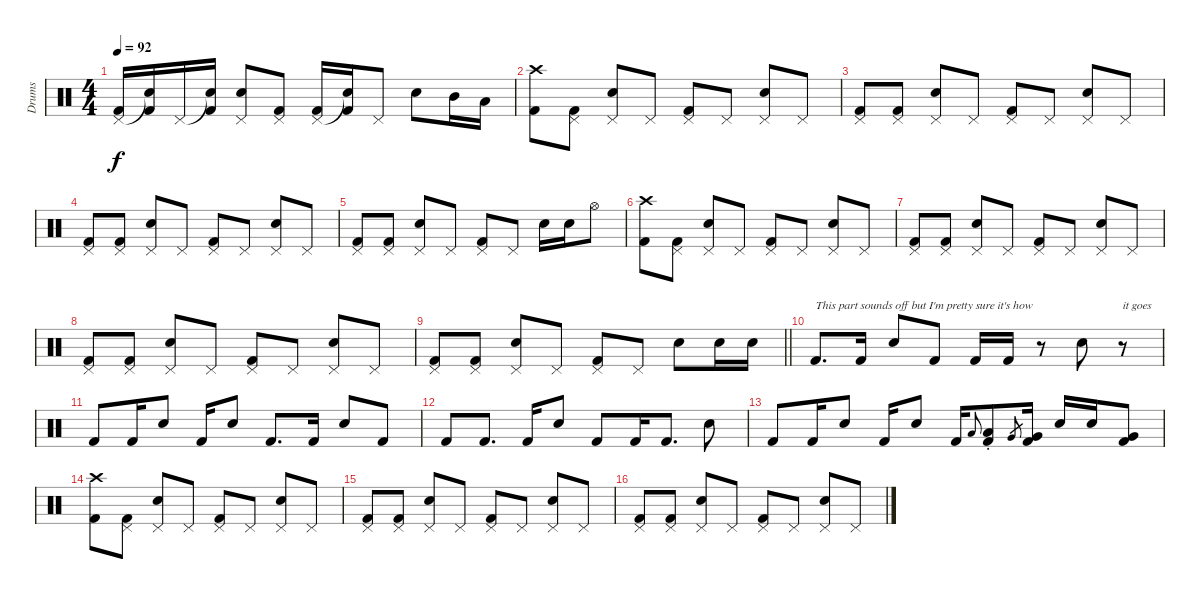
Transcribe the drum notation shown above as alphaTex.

\track ("Drums" "Drums") {instrument percussion}
\staff {score}
\articulation defaults
\ts (4 4)
\tempo 92
\clef neutral
\ks c
("Pedal Hi-Hat (hit)" "Kick (hit) 2").16{dy f} ("Snare (hit)"{t} "Kick (hit) 2").16 "Pedal Hi-Hat (hit)".16 ("Snare (hit)"{t} "Kick (hit) 2").16 ("Pedal Hi-Hat (hit)" "Electric Snare (hit)").8 ("Pedal Hi-Hat (hit)" "Kick (hit) 2").8 ("Pedal Hi-Hat (hit)" "Kick (hit) 2").16 ("Snare (hit)"{t} "Kick (hit) 2").16 "Pedal Hi-Hat (hit)".8 "Electric Snare (hit)".8 "Mid Tom (hit)".16 "Low Tom (hit)".16 |
("Crash high (hit)" "Kick (hit) 2").8 ("Pedal Hi-Hat (hit)" "Kick (hit) 2").8 ("Pedal Hi-Hat (hit)" "Electric Snare (hit)").8 "Pedal Hi-Hat (hit)".8 ("Pedal Hi-Hat (hit)" "Kick (hit) 2").8 "Pedal Hi-Hat (hit)".8 ("Pedal Hi-Hat (hit)" "Electric Snare (hit)").8 "Pedal Hi-Hat (hit)".8 |
("Pedal Hi-Hat (hit)" "Kick (hit) 2").8 ("Pedal Hi-Hat (hit)" "Kick (hit) 2").8 ("Pedal Hi-Hat (hit)" "Electric Snare (hit)").8 "Pedal Hi-Hat (hit)".8 ("Pedal Hi-Hat (hit)" "Kick (hit) 2").8 "Pedal Hi-Hat (hit)".8 ("Pedal Hi-Hat (hit)" "Electric Snare (hit)").8 "Pedal Hi-Hat (hit)".8 |
("Pedal Hi-Hat (hit)" "Kick (hit) 2").8 ("Pedal Hi-Hat (hit)" "Kick (hit) 2").8 ("Pedal Hi-Hat (hit)" "Electric Snare (hit)").8 "Pedal Hi-Hat (hit)".8 ("Pedal Hi-Hat (hit)" "Kick (hit) 2").8 "Pedal Hi-Hat (hit)".8 ("Pedal Hi-Hat (hit)" "Electric Snare (hit)").8 "Pedal Hi-Hat (hit)".8 |
("Pedal Hi-Hat (hit)" "Kick (hit) 2").8 ("Pedal Hi-Hat (hit)" "Kick (hit) 2").8 ("Pedal Hi-Hat (hit)" "Electric Snare (hit)").8 "Pedal Hi-Hat (hit)".8 ("Pedal Hi-Hat (hit)" "Kick (hit) 2").8 "Pedal Hi-Hat (hit)".8 "Electric Snare (hit)".16 "Electric Snare (hit)".16 "Hi-Hat (open)".8 |
("Crash high (hit)" "Kick (hit) 2").8 ("Pedal Hi-Hat (hit)" "Kick (hit) 2").8 ("Pedal Hi-Hat (hit)" "Electric Snare (hit)").8 "Pedal Hi-Hat (hit)".8 ("Pedal Hi-Hat (hit)" "Kick (hit) 2").8 "Pedal Hi-Hat (hit)".8 ("Pedal Hi-Hat (hit)" "Electric Snare (hit)").8 "Pedal Hi-Hat (hit)".8 |
("Pedal Hi-Hat (hit)" "Kick (hit) 2").8 ("Pedal Hi-Hat (hit)" "Kick (hit) 2").8 ("Pedal Hi-Hat (hit)" "Electric Snare (hit)").8 "Pedal Hi-Hat (hit)".8 ("Pedal Hi-Hat (hit)" "Kick (hit) 2").8 "Pedal Hi-Hat (hit)".8 ("Pedal Hi-Hat (hit)" "Electric Snare (hit)").8 "Pedal Hi-Hat (hit)".8 |
("Pedal Hi-Hat (hit)" "Kick (hit) 2").8 ("Pedal Hi-Hat (hit)" "Kick (hit) 2").8 ("Pedal Hi-Hat (hit)" "Electric Snare (hit)").8 "Pedal Hi-Hat (hit)".8 ("Pedal Hi-Hat (hit)" "Kick (hit) 2").8 "Pedal Hi-Hat (hit)".8 ("Pedal Hi-Hat (hit)" "Electric Snare (hit)").8 "Pedal Hi-Hat (hit)".8 |
\barLineRight lightlight
("Pedal Hi-Hat (hit)" "Kick (hit) 2").8 ("Pedal Hi-Hat (hit)" "Kick (hit) 2").8 ("Pedal Hi-Hat (hit)" "Electric Snare (hit)").8 "Pedal Hi-Hat (hit)".8 ("Pedal Hi-Hat (hit)" "Kick (hit) 2").8 "Pedal Hi-Hat (hit)".8 "Electric Snare (hit)".8 "Electric Snare (hit)".16 "Electric Snare (hit)".16 |
"Kick (hit) 2".8{d txt "This part sounds off but I'm pretty sure it's how"} "Kick (hit) 2".16 "Electric Snare (hit)".8 "Kick (hit) 2".8 "Kick (hit) 2".16 "Kick (hit) 2".16 r.8 "Electric Snare (hit)".8 r.8{txt "it goes"} |
"Kick (hit) 2".8 "Kick (hit) 2".16 "Electric Snare (hit)".8 "Kick (hit) 2".16 "Electric Snare (hit)".8 "Kick (hit) 2".8{d} "Kick (hit) 2".16 "Electric Snare (hit)".8 "Kick (hit) 2".8 |
"Kick (hit) 2".8 "Kick (hit) 2".8{d} "Kick (hit) 2".16 "Electric Snare (hit)".8 "Kick (hit) 2".8 "Kick (hit) 2".16 "Kick (hit) 2".8{d} "Electric Snare (hit)".8 |
"Kick (hit) 2".8 "Kick (hit) 2".16 "Electric Snare (hit)".8 "Kick (hit) 2".16 "Electric Snare (hit)".8 "Kick (hit) 2".16 "Low Tom (hit)".8{gr onbeat} ("Low Tom (hit)"{st} "Kick (hit) 2").8 "Very Low Tom (hit)".8{gr} ("Very Low Tom (hit)" "Kick (hit) 2").16 "Electric Snare (hit)".16 "Electric Snare (hit)".16 ("Very Low Tom (hit)" "Kick (hit) 2").8 |
("Crash high (hit)" "Kick (hit) 2").8 ("Pedal Hi-Hat (hit)" "Kick (hit) 2").8 ("Pedal Hi-Hat (hit)" "Electric Snare (hit)").8 "Pedal Hi-Hat (hit)".8 ("Pedal Hi-Hat (hit)" "Kick (hit) 2").8 "Pedal Hi-Hat (hit)".8 ("Pedal Hi-Hat (hit)" "Electric Snare (hit)").8 "Pedal Hi-Hat (hit)".8 |
("Pedal Hi-Hat (hit)" "Kick (hit) 2").8 ("Pedal Hi-Hat (hit)" "Kick (hit) 2").8 ("Pedal Hi-Hat (hit)" "Electric Snare (hit)").8 "Pedal Hi-Hat (hit)".8 ("Pedal Hi-Hat (hit)" "Kick (hit) 2").8 "Pedal Hi-Hat (hit)".8 ("Pedal Hi-Hat (hit)" "Electric Snare (hit)").8 "Pedal Hi-Hat (hit)".8 |
("Pedal Hi-Hat (hit)" "Kick (hit) 2").8 ("Pedal Hi-Hat (hit)" "Kick (hit) 2").8 ("Pedal Hi-Hat (hit)" "Electric Snare (hit)").8 "Pedal Hi-Hat (hit)".8 ("Pedal Hi-Hat (hit)" "Kick (hit) 2").8 "Pedal Hi-Hat (hit)".8 ("Pedal Hi-Hat (hit)" "Electric Snare (hit)").8 "Pedal Hi-Hat (hit)".8
